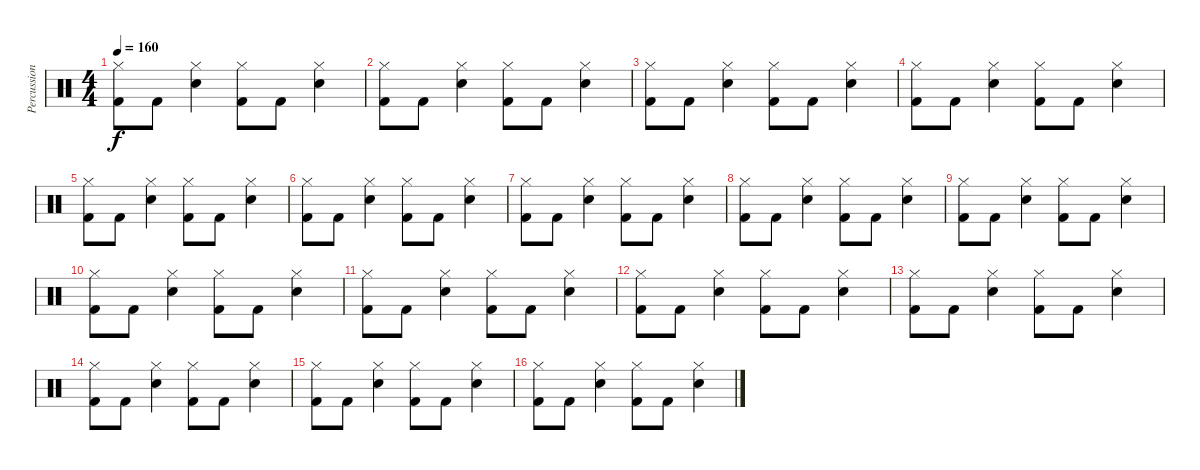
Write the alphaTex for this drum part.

\track ("Percussioni" "Percussion") {instrument percussion}
\staff {score}
\articulation defaults
\ts (4 4)
\tempo 160
\clef neutral
\ks c
("Hi-Hat (closed)" "Kick (hit) 2").8{dy f} "Kick (hit) 2".8 ("Hi-Hat (closed)" "Snare (hit) 2").4 ("Hi-Hat (closed)" "Kick (hit) 2").8 "Kick (hit) 2".8 ("Hi-Hat (closed)" "Snare (hit) 2").4 |
("Hi-Hat (closed)" "Kick (hit) 2").8 "Kick (hit) 2".8 ("Hi-Hat (closed)" "Snare (hit) 2").4 ("Hi-Hat (closed)" "Kick (hit) 2").8 "Kick (hit) 2".8 ("Hi-Hat (closed)" "Snare (hit) 2").4 |
("Hi-Hat (closed)" "Kick (hit) 2").8 "Kick (hit) 2".8 ("Hi-Hat (closed)" "Snare (hit) 2").4 ("Hi-Hat (closed)" "Kick (hit) 2").8 "Kick (hit) 2".8 ("Hi-Hat (closed)" "Snare (hit) 2").4 |
("Hi-Hat (closed)" "Kick (hit) 2").8 "Kick (hit) 2".8 ("Hi-Hat (closed)" "Snare (hit) 2").4 ("Hi-Hat (closed)" "Kick (hit) 2").8 "Kick (hit) 2".8 ("Hi-Hat (closed)" "Snare (hit) 2").4 |
("Hi-Hat (closed)" "Kick (hit) 2").8 "Kick (hit) 2".8 ("Hi-Hat (closed)" "Snare (hit) 2").4 ("Hi-Hat (closed)" "Kick (hit) 2").8 "Kick (hit) 2".8 ("Hi-Hat (closed)" "Snare (hit) 2").4 |
("Hi-Hat (closed)" "Kick (hit) 2").8 "Kick (hit) 2".8 ("Hi-Hat (closed)" "Snare (hit) 2").4 ("Hi-Hat (closed)" "Kick (hit) 2").8 "Kick (hit) 2".8 ("Hi-Hat (closed)" "Snare (hit) 2").4 |
("Hi-Hat (closed)" "Kick (hit) 2").8 "Kick (hit) 2".8 ("Hi-Hat (closed)" "Snare (hit) 2").4 ("Hi-Hat (closed)" "Kick (hit) 2").8 "Kick (hit) 2".8 ("Hi-Hat (closed)" "Snare (hit) 2").4 |
("Hi-Hat (closed)" "Kick (hit) 2").8 "Kick (hit) 2".8 ("Hi-Hat (closed)" "Snare (hit) 2").4 ("Hi-Hat (closed)" "Kick (hit) 2").8 "Kick (hit) 2".8 ("Hi-Hat (closed)" "Snare (hit) 2").4 |
("Hi-Hat (closed)" "Kick (hit) 2").8 "Kick (hit) 2".8 ("Hi-Hat (closed)" "Snare (hit) 2").4 ("Hi-Hat (closed)" "Kick (hit) 2").8 "Kick (hit) 2".8 ("Hi-Hat (closed)" "Snare (hit) 2").4 |
("Hi-Hat (closed)" "Kick (hit) 2").8 "Kick (hit) 2".8 ("Hi-Hat (closed)" "Snare (hit) 2").4 ("Hi-Hat (closed)" "Kick (hit) 2").8 "Kick (hit) 2".8 ("Hi-Hat (closed)" "Snare (hit) 2").4 |
("Hi-Hat (closed)" "Kick (hit) 2").8 "Kick (hit) 2".8 ("Hi-Hat (closed)" "Snare (hit) 2").4 ("Hi-Hat (closed)" "Kick (hit) 2").8 "Kick (hit) 2".8 ("Hi-Hat (closed)" "Snare (hit) 2").4 |
("Hi-Hat (closed)" "Kick (hit) 2").8 "Kick (hit) 2".8 ("Hi-Hat (closed)" "Snare (hit) 2").4 ("Hi-Hat (closed)" "Kick (hit) 2").8 "Kick (hit) 2".8 ("Hi-Hat (closed)" "Snare (hit) 2").4 |
("Hi-Hat (closed)" "Kick (hit) 2").8 "Kick (hit) 2".8 ("Hi-Hat (closed)" "Snare (hit) 2").4 ("Hi-Hat (closed)" "Kick (hit) 2").8 "Kick (hit) 2".8 ("Hi-Hat (closed)" "Snare (hit) 2").4 |
("Hi-Hat (closed)" "Kick (hit) 2").8 "Kick (hit) 2".8 ("Hi-Hat (closed)" "Snare (hit) 2").4 ("Hi-Hat (closed)" "Kick (hit) 2").8 "Kick (hit) 2".8 ("Hi-Hat (closed)" "Snare (hit) 2").4 |
("Hi-Hat (closed)" "Kick (hit) 2").8 "Kick (hit) 2".8 ("Hi-Hat (closed)" "Snare (hit) 2").4 ("Hi-Hat (closed)" "Kick (hit) 2").8 "Kick (hit) 2".8 ("Hi-Hat (closed)" "Snare (hit) 2").4 |
("Hi-Hat (closed)" "Kick (hit) 2").8 "Kick (hit) 2".8 ("Hi-Hat (closed)" "Snare (hit) 2").4 ("Hi-Hat (closed)" "Kick (hit) 2").8 "Kick (hit) 2".8 ("Hi-Hat (closed)" "Snare (hit) 2").4
